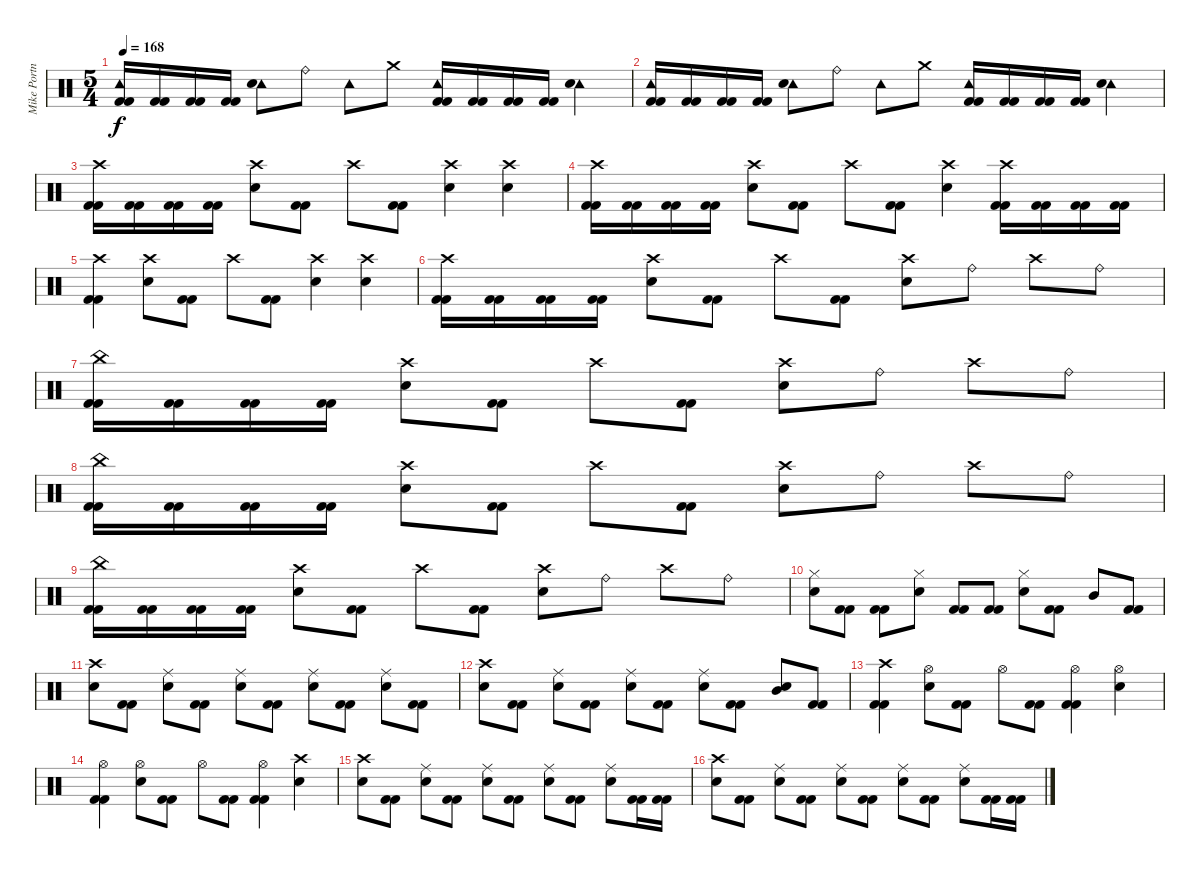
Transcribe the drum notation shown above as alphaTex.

\track ("Mike Portnoy - Drum" "Mike Portn") {instrument percussion}
\staff {score}
\articulation defaults
\ts (5 4)
\tempo 168
\clef neutral
\ks c
("Tambourine (hit)" "Kick (hit) 2" "Kick (hit) 2").16{dy f} ("Kick (hit) 2" "Kick (hit) 2").16 ("Kick (hit) 2" "Kick (hit) 2").16 ("Kick (hit) 2" "Kick (hit) 2").16 ("Tambourine (hit)" "Snare (hit) 2").8 "Ride (bell)".8 "Tambourine (hit)".8 "Crash medium (hit)".8 ("Tambourine (hit)" "Kick (hit) 2" "Kick (hit) 2").16 ("Kick (hit) 2" "Kick (hit) 2").16 ("Kick (hit) 2" "Kick (hit) 2").16 ("Kick (hit) 2" "Kick (hit) 2").16 ("Tambourine (hit)" "Snare (hit) 2").4 |
("Tambourine (hit)" "Kick (hit) 2" "Kick (hit) 2").16 ("Kick (hit) 2" "Kick (hit) 2").16 ("Kick (hit) 2" "Kick (hit) 2").16 ("Kick (hit) 2" "Kick (hit) 2").16 ("Tambourine (hit)" "Snare (hit) 2").8 "Ride (bell)".8 "Tambourine (hit)".8 "Crash medium (hit)".8 ("Tambourine (hit)" "Kick (hit) 2" "Kick (hit) 2").16 ("Kick (hit) 2" "Kick (hit) 2").16 ("Kick (hit) 2" "Kick (hit) 2").16 ("Kick (hit) 2" "Kick (hit) 2").16 ("Tambourine (hit)" "Snare (hit) 2").4 |
("Crash high (hit)" "Kick (hit) 2" "Kick (hit) 2").16 ("Kick (hit) 2" "Kick (hit) 2").16 ("Kick (hit) 2" "Kick (hit) 2").16 ("Kick (hit) 2" "Kick (hit) 2").16 ("Crash high (hit)" "Snare (hit) 2").8 ("Kick (hit) 2" "Kick (hit) 2").8 "Crash high (hit)".8 ("Kick (hit) 2" "Kick (hit) 2").8 ("Crash high (hit)" "Snare (hit) 2").4 ("Crash high (hit)" "Snare (hit) 2").4 |
("Crash high (hit)" "Kick (hit) 2" "Kick (hit) 2").16 ("Kick (hit) 2" "Kick (hit) 2").16 ("Kick (hit) 2" "Kick (hit) 2").16 ("Kick (hit) 2" "Kick (hit) 2").16 ("Crash high (hit)" "Snare (hit) 2").8 ("Kick (hit) 2" "Kick (hit) 2").8 "Crash high (hit)".8 ("Kick (hit) 2" "Kick (hit) 2").8 ("Crash high (hit)" "Snare (hit) 2").4 ("Crash high (hit)" "Kick (hit) 2" "Kick (hit) 2").16 ("Kick (hit) 2" "Kick (hit) 2").16 ("Kick (hit) 2" "Kick (hit) 2").16 ("Kick (hit) 2" "Kick (hit) 2").16 |
("Crash high (hit)" "Kick (hit) 2" "Kick (hit) 2").4 ("Crash high (hit)" "Snare (hit) 2").8 ("Kick (hit) 2" "Kick (hit) 2").8 "Crash high (hit)".8 ("Kick (hit) 2" "Kick (hit) 2").8 ("Crash high (hit)" "Snare (hit) 2").4 ("Crash high (hit)" "Snare (hit) 2").4 |
("Crash high (hit)" "Kick (hit) 2" "Kick (hit) 2").16 ("Kick (hit) 2" "Kick (hit) 2").16 ("Kick (hit) 2" "Kick (hit) 2").16 ("Kick (hit) 2" "Kick (hit) 2").16 ("Crash high (hit)" "Snare (hit) 2").8 ("Kick (hit) 2" "Kick (hit) 2").8 "Crash high (hit)".8 ("Kick (hit) 2" "Kick (hit) 2").8 ("Crash high (hit)" "Snare (hit) 2").8 "Ride (bell)".8 "Crash high (hit)".8 "Ride (bell)".8 |
("China (hit)" "Kick (hit) 2" "Kick (hit) 2").16 ("Kick (hit) 2" "Kick (hit) 2").16 ("Kick (hit) 2" "Kick (hit) 2").16 ("Kick (hit) 2" "Kick (hit) 2").16 ("Crash high (hit)" "Snare (hit) 2").8 ("Kick (hit) 2" "Kick (hit) 2").8 "Crash high (hit)".8 ("Kick (hit) 2" "Kick (hit) 2").8 ("Crash high (hit)" "Snare (hit) 2").8 "Ride (bell)".8 "Crash high (hit)".8 "Ride (bell)".8 |
("China (hit)" "Kick (hit) 2" "Kick (hit) 2").16 ("Kick (hit) 2" "Kick (hit) 2").16 ("Kick (hit) 2" "Kick (hit) 2").16 ("Kick (hit) 2" "Kick (hit) 2").16 ("Crash high (hit)" "Snare (hit) 2").8 ("Kick (hit) 2" "Kick (hit) 2").8 "Crash high (hit)".8 ("Kick (hit) 2" "Kick (hit) 2").8 ("Crash high (hit)" "Snare (hit) 2").8 "Ride (bell)".8 "Crash high (hit)".8 "Ride (bell)".8 |
("China (hit)" "Kick (hit) 2" "Kick (hit) 2").16 ("Kick (hit) 2" "Kick (hit) 2").16 ("Kick (hit) 2" "Kick (hit) 2").16 ("Kick (hit) 2" "Kick (hit) 2").16 ("Crash high (hit)" "Snare (hit) 2").8 ("Kick (hit) 2" "Kick (hit) 2").8 "Crash high (hit)".8 ("Kick (hit) 2" "Kick (hit) 2").8 ("Crash high (hit)" "Snare (hit) 2").8 "Ride (bell)".8 "Crash high (hit)".8 "Ride (bell)".8 |
("Hi-Hat (closed)" "Snare (hit) 2").8 ("Kick (hit) 2" "Kick (hit) 2").8 ("Kick (hit) 2" "Kick (hit) 2").8 ("Hi-Hat (closed)" "Snare (hit) 2").8 ("Kick (hit) 2" "Kick (hit) 2").8 ("Kick (hit) 2" "Kick (hit) 2").8 ("Hi-Hat (closed)" "Snare (hit) 2").8 ("Kick (hit) 2" "Kick (hit) 2").8 "Mid Tom (hit)".8 ("Kick (hit) 2" "Kick (hit) 2").8 |
("Crash high (hit)" "Snare (hit) 2").8 ("Kick (hit) 2" "Kick (hit) 2").8 ("Ride (middle)" "Snare (hit) 2").8 ("Kick (hit) 2" "Kick (hit) 2").8 ("Ride (middle)" "Snare (hit) 2").8 ("Kick (hit) 2" "Kick (hit) 2").8 ("Ride (middle)" "Snare (hit) 2").8 ("Kick (hit) 2" "Kick (hit) 2").8 ("Ride (middle)" "Snare (hit) 2").8 ("Kick (hit) 2" "Kick (hit) 2").8 |
("Crash high (hit)" "Snare (hit) 2").8 ("Kick (hit) 2" "Kick (hit) 2").8 ("Ride (middle)" "Snare (hit) 2").8 ("Kick (hit) 2" "Kick (hit) 2").8 ("Ride (middle)" "Snare (hit) 2").8 ("Kick (hit) 2" "Kick (hit) 2").8 ("Ride (middle)" "Snare (hit) 2").8 ("Kick (hit) 2" "Kick (hit) 2").8 ("Mid Tom (hit)" "Snare (hit) 2").8 ("Kick (hit) 2" "Kick (hit) 2").8 |
("Crash high (hit)" "Kick (hit) 2" "Kick (hit) 2").4 ("Hi-Hat (open)" "Snare (hit) 2").8 ("Kick (hit) 2" "Kick (hit) 2").8 "Hi-Hat (open)".8 ("Kick (hit) 2" "Kick (hit) 2").8 ("Hi-Hat (open)" "Kick (hit) 2" "Kick (hit) 2").4 ("Hi-Hat (open)" "Snare (hit) 2").4 |
("Hi-Hat (open)" "Kick (hit) 2" "Kick (hit) 2").4 ("Hi-Hat (open)" "Snare (hit) 2").8 ("Kick (hit) 2" "Kick (hit) 2").8 "Hi-Hat (open)".8 ("Kick (hit) 2" "Kick (hit) 2").8 ("Hi-Hat (open)" "Kick (hit) 2" "Kick (hit) 2").4 ("Crash high (hit)" "Snare (hit) 2").4 |
("Crash high (hit)" "Snare (hit) 2").8 ("Kick (hit) 2" "Kick (hit) 2").8 ("Ride (middle)" "Snare (hit) 2").8 ("Kick (hit) 2" "Kick (hit) 2").8 ("Ride (middle)" "Snare (hit) 2").8 ("Kick (hit) 2" "Kick (hit) 2").8 ("Ride (middle)" "Snare (hit) 2").8 ("Kick (hit) 2" "Kick (hit) 2").8 ("Ride (middle)" "Snare (hit) 2").8 ("Kick (hit) 2" "Kick (hit) 2").16 ("Kick (hit) 2" "Kick (hit) 2").16 |
("Crash high (hit)" "Snare (hit) 2").8 ("Kick (hit) 2" "Kick (hit) 2").8 ("Ride (middle)" "Snare (hit) 2").8 ("Kick (hit) 2" "Kick (hit) 2").8 ("Ride (middle)" "Snare (hit) 2").8 ("Kick (hit) 2" "Kick (hit) 2").8 ("Ride (middle)" "Snare (hit) 2").8 ("Kick (hit) 2" "Kick (hit) 2").8 ("Ride (middle)" "Snare (hit) 2").8 ("Kick (hit) 2" "Kick (hit) 2").16 ("Kick (hit) 2" "Kick (hit) 2").16
